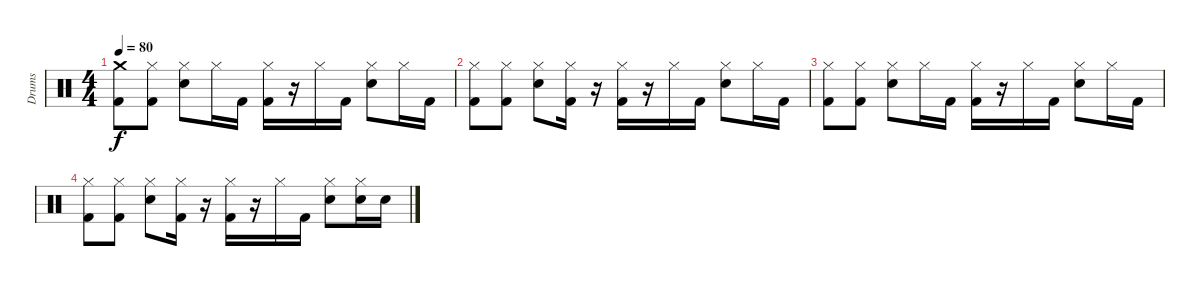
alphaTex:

\track ("Drums" "Drums") {instrument percussion}
\staff {score}
\articulation defaults
\ts (4 4)
\tempo 80
\clef neutral
\ks c
("Crash medium (hit)" "Kick (hit) 2").8{dy f} ("Hi-Hat (closed)" "Kick (hit) 2").8 ("Hi-Hat (closed)" "Electric Snare (hit)").8 "Hi-Hat (closed)".16 "Kick (hit) 2".16 ("Hi-Hat (closed)" "Kick (hit) 2").16 r.16 "Hi-Hat (closed)".16 "Kick (hit) 2".16 ("Hi-Hat (closed)" "Electric Snare (hit)").8 "Hi-Hat (closed)".16 "Kick (hit) 2".16 |
("Hi-Hat (closed)" "Kick (hit) 2").8 ("Hi-Hat (closed)" "Kick (hit) 2").8 ("Hi-Hat (closed)" "Electric Snare (hit)").8 ("Hi-Hat (closed)" "Kick (hit) 2").16 r.16 ("Hi-Hat (closed)" "Kick (hit) 2").16 r.16 "Hi-Hat (closed)".16 "Kick (hit) 2".16 ("Hi-Hat (closed)" "Electric Snare (hit)").8 "Hi-Hat (closed)".16 "Kick (hit) 2".16 |
("Hi-Hat (closed)" "Kick (hit) 2").8 ("Hi-Hat (closed)" "Kick (hit) 2").8 ("Hi-Hat (closed)" "Electric Snare (hit)").8 "Hi-Hat (closed)".16 "Kick (hit) 2".16 ("Hi-Hat (closed)" "Kick (hit) 2").16 r.16 "Hi-Hat (closed)".16 "Kick (hit) 2".16 ("Hi-Hat (closed)" "Electric Snare (hit)").8 "Hi-Hat (closed)".16 "Kick (hit) 2".16 |
("Hi-Hat (closed)" "Kick (hit) 2").8 ("Hi-Hat (closed)" "Kick (hit) 2").8 ("Hi-Hat (closed)" "Electric Snare (hit)").8 ("Hi-Hat (closed)" "Kick (hit) 2").16 r.16 ("Hi-Hat (closed)" "Kick (hit) 2").16 r.16 "Hi-Hat (closed)".16 "Kick (hit) 2".16 ("Hi-Hat (closed)" "Electric Snare (hit)").8 ("Hi-Hat (closed)" "Electric Snare (hit)").16 "Electric Snare (hit)".16
